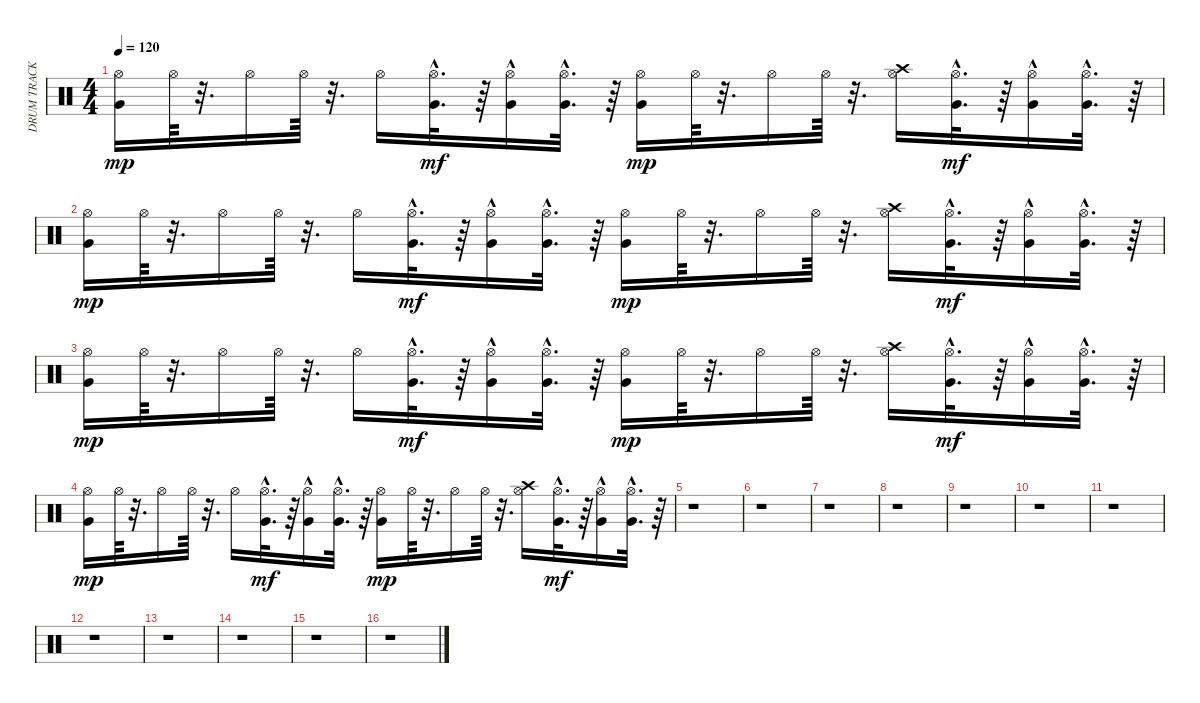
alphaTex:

\track ("DRUM TRACK          " "DRUM TRACK") {instrument percussion}
\staff {score}
\articulation defaults
\ts (4 4)
\tempo 120
\clef neutral
\ks c
("Hi-Hat (open)" "Very Low Tom (hit)").16{dy mp} "Hi-Hat (open)".64 r.32{d} "Hi-Hat (open)".16 "Hi-Hat (open)".64 r.32{d} "Hi-Hat (open)".16 ("Hi-Hat (open)" "Very Low Tom (hit)"{hac}).32{d dy mf} r.64 ("Hi-Hat (open)" "Very Low Tom (hit)"{hac}).16 ("Hi-Hat (open)" "Very Low Tom (hit)"{hac}).32{d} r.64 ("Very Low Tom (hit)" "Hi-Hat (open)").16{dy mp} "Hi-Hat (open)".64 r.32{d} "Hi-Hat (open)".16 "Hi-Hat (open)".64 r.32{d} ("Hi-Hat (open)" "Crash high (hit)").16 ("Hi-Hat (open)" "Very Low Tom (hit)"{hac}).32{d dy mf} r.64 ("Hi-Hat (open)" "Very Low Tom (hit)"{hac}).16 ("Hi-Hat (open)" "Very Low Tom (hit)"{hac}).32{d} r.64 |
("Hi-Hat (open)" "Very Low Tom (hit)").16{dy mp} "Hi-Hat (open)".64 r.32{d} "Hi-Hat (open)".16 "Hi-Hat (open)".64 r.32{d} "Hi-Hat (open)".16 ("Hi-Hat (open)" "Very Low Tom (hit)"{hac}).32{d dy mf} r.64 ("Hi-Hat (open)" "Very Low Tom (hit)"{hac}).16 ("Hi-Hat (open)" "Very Low Tom (hit)"{hac}).32{d} r.64 ("Very Low Tom (hit)" "Hi-Hat (open)").16{dy mp} "Hi-Hat (open)".64 r.32{d} "Hi-Hat (open)".16 "Hi-Hat (open)".64 r.32{d} ("Hi-Hat (open)" "Crash high (hit)").16 ("Hi-Hat (open)" "Very Low Tom (hit)"{hac}).32{d dy mf} r.64 ("Hi-Hat (open)" "Very Low Tom (hit)"{hac}).16 ("Hi-Hat (open)" "Very Low Tom (hit)"{hac}).32{d} r.64 |
("Hi-Hat (open)" "Very Low Tom (hit)").16{dy mp} "Hi-Hat (open)".64 r.32{d} "Hi-Hat (open)".16 "Hi-Hat (open)".64 r.32{d} "Hi-Hat (open)".16 ("Hi-Hat (open)" "Very Low Tom (hit)"{hac}).32{d dy mf} r.64 ("Hi-Hat (open)" "Very Low Tom (hit)"{hac}).16 ("Hi-Hat (open)" "Very Low Tom (hit)"{hac}).32{d} r.64 ("Very Low Tom (hit)" "Hi-Hat (open)").16{dy mp} "Hi-Hat (open)".64 r.32{d} "Hi-Hat (open)".16 "Hi-Hat (open)".64 r.32{d} ("Hi-Hat (open)" "Crash high (hit)").16 ("Hi-Hat (open)" "Very Low Tom (hit)"{hac}).32{d dy mf} r.64 ("Hi-Hat (open)" "Very Low Tom (hit)"{hac}).16 ("Hi-Hat (open)" "Very Low Tom (hit)"{hac}).32{d} r.64 |
("Hi-Hat (open)" "Very Low Tom (hit)").16{dy mp} "Hi-Hat (open)".64 r.32{d} "Hi-Hat (open)".16 "Hi-Hat (open)".64 r.32{d} "Hi-Hat (open)".16 ("Hi-Hat (open)" "Very Low Tom (hit)"{hac}).32{d dy mf} r.64 ("Hi-Hat (open)" "Very Low Tom (hit)"{hac}).16 ("Hi-Hat (open)" "Very Low Tom (hit)"{hac}).32{d} r.64 ("Very Low Tom (hit)" "Hi-Hat (open)").16{dy mp} "Hi-Hat (open)".64 r.32{d} "Hi-Hat (open)".16 "Hi-Hat (open)".64 r.32{d} ("Hi-Hat (open)" "Crash high (hit)").16 ("Hi-Hat (open)" "Very Low Tom (hit)"{hac}).32{d dy mf} r.64 ("Hi-Hat (open)" "Very Low Tom (hit)"{hac}).16 ("Hi-Hat (open)" "Very Low Tom (hit)"{hac}).32{d} r.64 |
r.1 |
r.1 |
r.1 |
r.1 |
r.1 |
r.1 |
r.1 |
r.1 |
r.1 |
r.1 |
r.1 |
r.1
